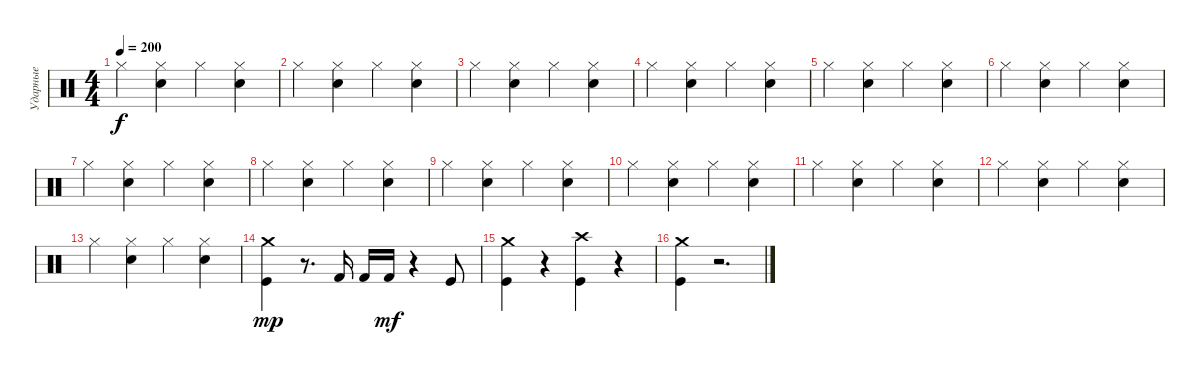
\track ("Ударные" "Ударные") {instrument percussion}
\staff {score}
\articulation defaults
\ts (4 4)
\tempo 200
\clef neutral
\ks c "Hi-Hat (closed)".4{dy f}
("Snare (hit) 2" "Hi-Hat (closed)").4 "Hi-Hat (closed)".4 ("Snare (hit) 2" "Hi-Hat (closed)").4 |
"Hi-Hat (closed)".4 ("Snare (hit) 2" "Hi-Hat (closed)").4 "Hi-Hat (closed)".4 ("Snare (hit) 2" "Hi-Hat (closed)").4 |
"Hi-Hat (closed)".4 ("Snare (hit) 2" "Hi-Hat (closed)").4 "Hi-Hat (closed)".4 ("Snare (hit) 2" "Hi-Hat (closed)").4 |
"Hi-Hat (closed)".4 ("Snare (hit) 2" "Hi-Hat (closed)").4 "Hi-Hat (closed)".4 ("Snare (hit) 2" "Hi-Hat (closed)").4 |
"Hi-Hat (closed)".4 ("Snare (hit) 2" "Hi-Hat (closed)").4 "Hi-Hat (closed)".4 ("Snare (hit) 2" "Hi-Hat (closed)").4 |
"Hi-Hat (closed)".4 ("Snare (hit) 2" "Hi-Hat (closed)").4 "Hi-Hat (closed)".4 ("Snare (hit) 2" "Hi-Hat (closed)").4 |
"Hi-Hat (closed)".4 ("Snare (hit) 2" "Hi-Hat (closed)").4 "Hi-Hat (closed)".4 ("Snare (hit) 2" "Hi-Hat (closed)").4 |
"Hi-Hat (closed)".4 ("Snare (hit) 2" "Hi-Hat (closed)").4 "Hi-Hat (closed)".4 ("Snare (hit) 2" "Hi-Hat (closed)").4 |
"Hi-Hat (closed)".4 ("Snare (hit) 2" "Hi-Hat (closed)").4 "Hi-Hat (closed)".4 ("Snare (hit) 2" "Hi-Hat (closed)").4 |
"Hi-Hat (closed)".4 ("Snare (hit) 2" "Hi-Hat (closed)").4 "Hi-Hat (closed)".4 ("Snare (hit) 2" "Hi-Hat (closed)").4 |
"Hi-Hat (closed)".4 ("Snare (hit) 2" "Hi-Hat (closed)").4 "Hi-Hat (closed)".4 ("Snare (hit) 2" "Hi-Hat (closed)").4 |
"Hi-Hat (closed)".4 ("Snare (hit) 2" "Hi-Hat (closed)").4 "Hi-Hat (closed)".4 ("Snare (hit) 2" "Hi-Hat (closed)").4 |
"Hi-Hat (closed)".4 ("Snare (hit) 2" "Hi-Hat (closed)").4 "Hi-Hat (closed)".4 ("Snare (hit) 2" "Hi-Hat (closed)").4 |
("Crash medium (hit)" "Kick (hit)").4{dy mp} r.8{d} "Kick (hit) 2".16 "Kick (hit) 2".16 "Kick (hit) 2".16{dy mf} r.4 "Kick (hit)".8 |
("Kick (hit)" "Crash medium (hit)").4 r.4 ("Crash high (hit)" "Kick (hit)").4 r.4 |
("Crash medium (hit)" "Kick (hit)").4 r.2{d}
